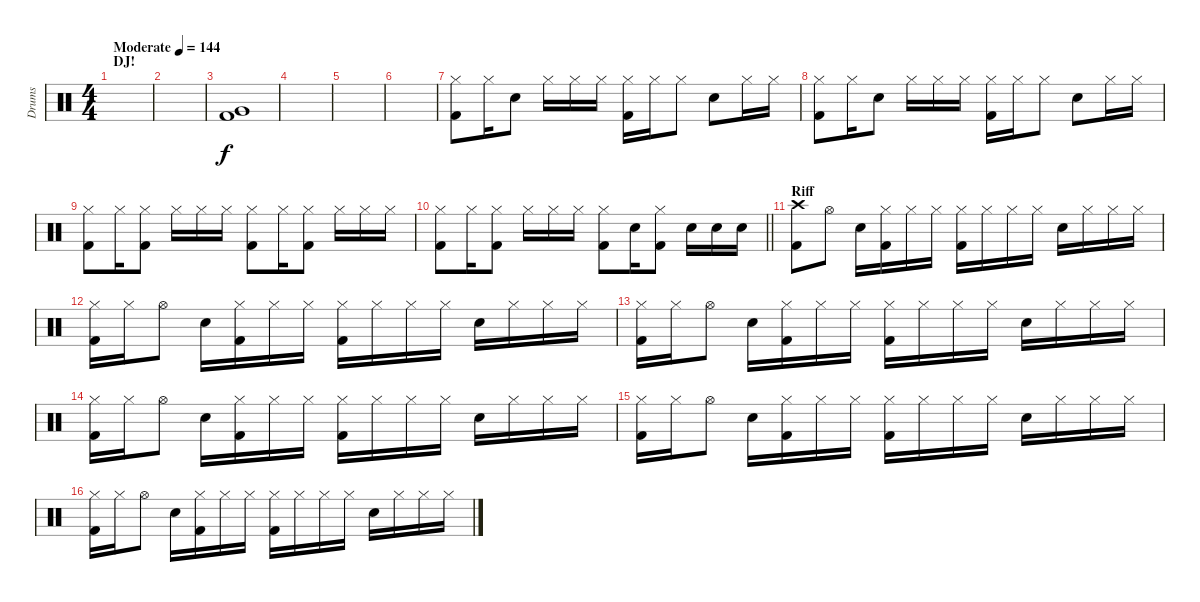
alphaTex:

\track ("Drums" "Drums") {instrument percussion}
\staff {score}
\articulation defaults
\ts (4 4)
\section ("" "DJ!")
\tempo (144 "Moderate")
\clef neutral
\ks c
|
|
("Very Low Tom (hit)" "Kick (hit) 2").1 |
|
|
|
("Hi-Hat (closed)" "Kick (hit) 2").8 "Hi-Hat (closed)".16 "Electric Snare (hit)".8 "Hi-Hat (closed)".16 "Hi-Hat (closed)".16 "Hi-Hat (closed)".16 ("Hi-Hat (closed)" "Kick (hit) 2").16 "Hi-Hat (closed)".16 "Hi-Hat (closed)".8 "Electric Snare (hit)".8 "Hi-Hat (closed)".16 "Hi-Hat (closed)".16 |
("Hi-Hat (closed)" "Kick (hit) 2").8 "Hi-Hat (closed)".16 "Electric Snare (hit)".8 "Hi-Hat (closed)".16 "Hi-Hat (closed)".16 "Hi-Hat (closed)".16 ("Hi-Hat (closed)" "Kick (hit) 2").16 "Hi-Hat (closed)".16 "Hi-Hat (closed)".8 "Electric Snare (hit)".8 "Hi-Hat (closed)".16 "Hi-Hat (closed)".16 |
("Hi-Hat (closed)" "Kick (hit) 2").8 "Hi-Hat (closed)".16 ("Hi-Hat (closed)" "Kick (hit) 2").8 "Hi-Hat (closed)".16 "Hi-Hat (closed)".16 "Hi-Hat (closed)".16 ("Hi-Hat (closed)" "Kick (hit) 2").8 "Hi-Hat (closed)".16 ("Hi-Hat (closed)" "Kick (hit) 2").8 "Hi-Hat (closed)".16 "Hi-Hat (closed)".16 "Hi-Hat (closed)".16 |
\barLineRight lightlight
("Hi-Hat (closed)" "Kick (hit) 2").8 "Hi-Hat (closed)".16 ("Hi-Hat (closed)" "Kick (hit) 2").8 "Hi-Hat (closed)".16 "Hi-Hat (closed)".16 "Hi-Hat (closed)".16 ("Hi-Hat (closed)" "Kick (hit) 2").8 "Electric Snare (hit)".16 ("Hi-Hat (closed)" "Kick (hit) 2").8 "Electric Snare (hit)".16 "Electric Snare (hit)".16 "Electric Snare (hit)".16 |
\section ("" "Riff")
("Crash high (hit)" "Kick (hit) 2").8 "Hi-Hat (open)".8 "Electric Snare (hit)".16 ("Hi-Hat (closed)" "Kick (hit) 2").16 "Hi-Hat (closed)".16 "Hi-Hat (closed)".16 ("Hi-Hat (closed)" "Kick (hit) 2").16 "Hi-Hat (closed)".16 "Hi-Hat (closed)".16 "Hi-Hat (closed)".16 "Electric Snare (hit)".16 "Hi-Hat (closed)".16 "Hi-Hat (closed)".16 "Hi-Hat (closed)".16 |
("Hi-Hat (closed)" "Kick (hit) 2").16 "Hi-Hat (closed)".16 "Hi-Hat (open)".8 "Electric Snare (hit)".16 ("Hi-Hat (closed)" "Kick (hit) 2").16 "Hi-Hat (closed)".16 "Hi-Hat (closed)".16 ("Hi-Hat (closed)" "Kick (hit) 2").16 "Hi-Hat (closed)".16 "Hi-Hat (closed)".16 "Hi-Hat (closed)".16 "Electric Snare (hit)".16 "Hi-Hat (closed)".16 "Hi-Hat (closed)".16 "Hi-Hat (closed)".16 |
("Hi-Hat (closed)" "Kick (hit) 2").16 "Hi-Hat (closed)".16 "Hi-Hat (open)".8 "Electric Snare (hit)".16 ("Hi-Hat (closed)" "Kick (hit) 2").16 "Hi-Hat (closed)".16 "Hi-Hat (closed)".16 ("Hi-Hat (closed)" "Kick (hit) 2").16 "Hi-Hat (closed)".16 "Hi-Hat (closed)".16 "Hi-Hat (closed)".16 "Electric Snare (hit)".16 "Hi-Hat (closed)".16 "Hi-Hat (closed)".16 "Hi-Hat (closed)".16 |
("Hi-Hat (closed)" "Kick (hit) 2").16 "Hi-Hat (closed)".16 "Hi-Hat (open)".8 "Electric Snare (hit)".16 ("Hi-Hat (closed)" "Kick (hit) 2").16 "Hi-Hat (closed)".16 "Hi-Hat (closed)".16 ("Hi-Hat (closed)" "Kick (hit) 2").16 "Hi-Hat (closed)".16 "Hi-Hat (closed)".16 "Hi-Hat (closed)".16 "Electric Snare (hit)".16 "Hi-Hat (closed)".16 "Hi-Hat (closed)".16 "Hi-Hat (closed)".16 |
("Hi-Hat (closed)" "Kick (hit) 2").16 "Hi-Hat (closed)".16 "Hi-Hat (open)".8 "Electric Snare (hit)".16 ("Hi-Hat (closed)" "Kick (hit) 2").16 "Hi-Hat (closed)".16 "Hi-Hat (closed)".16 ("Hi-Hat (closed)" "Kick (hit) 2").16 "Hi-Hat (closed)".16 "Hi-Hat (closed)".16 "Hi-Hat (closed)".16 "Electric Snare (hit)".16 "Hi-Hat (closed)".16 "Hi-Hat (closed)".16 "Hi-Hat (closed)".16 |
("Hi-Hat (closed)" "Kick (hit) 2").16 "Hi-Hat (closed)".16 "Hi-Hat (open)".8 "Electric Snare (hit)".16 ("Hi-Hat (closed)" "Kick (hit) 2").16 "Hi-Hat (closed)".16 "Hi-Hat (closed)".16 ("Hi-Hat (closed)" "Kick (hit) 2").16 "Hi-Hat (closed)".16 "Hi-Hat (closed)".16 "Hi-Hat (closed)".16 "Electric Snare (hit)".16 "Hi-Hat (closed)".16 "Hi-Hat (closed)".16 "Hi-Hat (closed)".16
